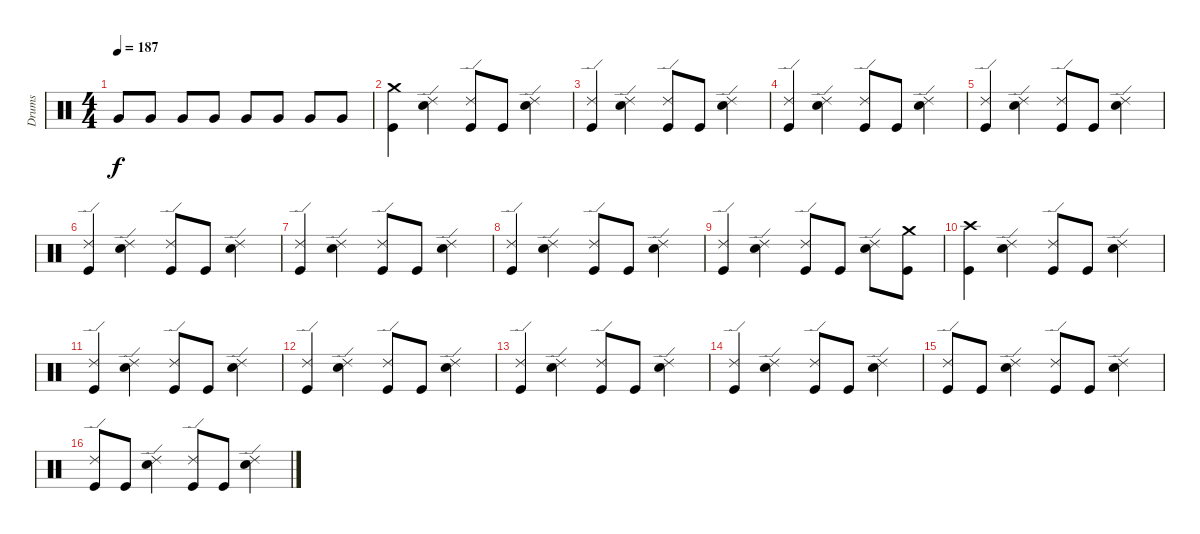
\track ("Drums" "Drums") {instrument percussion}
\staff {score}
\articulation defaults
\ts (4 4)
\tempo 187
\clef neutral
\ks c "Very Low Tom (hit)".8{dy f volume 13} "Very Low Tom (hit)".8 "Very Low Tom (hit)".8 "Very Low Tom (hit)".8 "Very Low Tom (hit)".8 "Very Low Tom (hit)".8 "Very Low Tom (hit)".8 "Very Low Tom (hit)".8
|
("Crash medium (hit)" "Kick (hit)").4 ("Ride (edge) 2" "Snare (hit) 2").4 ("Ride (edge) 2" "Kick (hit)").8 "Kick (hit)".8 ("Ride (edge) 2" "Snare (hit) 2").4 |
("Ride (edge) 2" "Kick (hit)").4 ("Ride (edge) 2" "Snare (hit) 2").4 ("Ride (edge) 2" "Kick (hit)").8 "Kick (hit)".8 ("Ride (edge) 2" "Snare (hit) 2").4 |
("Ride (edge) 2" "Kick (hit)").4 ("Ride (edge) 2" "Snare (hit) 2").4 ("Ride (edge) 2" "Kick (hit)").8 "Kick (hit)".8 ("Ride (edge) 2" "Snare (hit) 2").4 |
("Ride (edge) 2" "Kick (hit)").4 ("Ride (edge) 2" "Snare (hit) 2").4 ("Ride (edge) 2" "Kick (hit)").8 "Kick (hit)".8 ("Ride (edge) 2" "Snare (hit) 2").4 |
("Ride (edge) 2" "Kick (hit)").4 ("Ride (edge) 2" "Snare (hit) 2").4 ("Ride (edge) 2" "Kick (hit)").8 "Kick (hit)".8 ("Ride (edge) 2" "Snare (hit) 2").4 |
("Ride (edge) 2" "Kick (hit)").4 ("Ride (edge) 2" "Snare (hit) 2").4 ("Ride (edge) 2" "Kick (hit)").8 "Kick (hit)".8 ("Ride (edge) 2" "Snare (hit) 2").4 |
("Ride (edge) 2" "Kick (hit)").4 ("Ride (edge) 2" "Snare (hit) 2").4 ("Ride (edge) 2" "Kick (hit)").8 "Kick (hit)".8 ("Ride (edge) 2" "Snare (hit) 2").4 |
("Ride (edge) 2" "Kick (hit)").4 ("Ride (edge) 2" "Snare (hit) 2").4 ("Ride (edge) 2" "Kick (hit)").8 "Kick (hit)".8 ("Ride (edge) 2" "Snare (hit) 2").8 ("Crash medium (hit)" "Kick (hit)").8 |
("Crash high (hit)" "Kick (hit)").4 ("Ride (edge) 2" "Snare (hit) 2").4 ("Ride (edge) 2" "Kick (hit)").8 "Kick (hit)".8 ("Ride (edge) 2" "Snare (hit) 2").4 |
("Ride (edge) 2" "Kick (hit)").4 ("Ride (edge) 2" "Snare (hit) 2").4 ("Ride (edge) 2" "Kick (hit)").8 "Kick (hit)".8 ("Ride (edge) 2" "Snare (hit) 2").4 |
("Ride (edge) 2" "Kick (hit)").4 ("Ride (edge) 2" "Snare (hit) 2").4 ("Ride (edge) 2" "Kick (hit)").8 "Kick (hit)".8 ("Ride (edge) 2" "Snare (hit) 2").4 |
("Ride (edge) 2" "Kick (hit)").4 ("Ride (edge) 2" "Snare (hit) 2").4 ("Ride (edge) 2" "Kick (hit)").8 "Kick (hit)".8 ("Ride (edge) 2" "Snare (hit) 2").4 |
("Ride (edge) 2" "Kick (hit)").4 ("Ride (edge) 2" "Snare (hit) 2").4 ("Ride (edge) 2" "Kick (hit)").8 "Kick (hit)".8 ("Ride (edge) 2" "Snare (hit) 2").4 |
("Ride (edge) 2" "Kick (hit)").8 "Kick (hit)".8 ("Ride (edge) 2" "Snare (hit) 2").4 ("Ride (edge) 2" "Kick (hit)").8 "Kick (hit)".8 ("Ride (edge) 2" "Snare (hit) 2").4 |
("Ride (edge) 2" "Kick (hit)").8 "Kick (hit)".8 ("Ride (edge) 2" "Snare (hit) 2").4 ("Ride (edge) 2" "Kick (hit)").8 "Kick (hit)".8 ("Ride (edge) 2" "Snare (hit) 2").4
